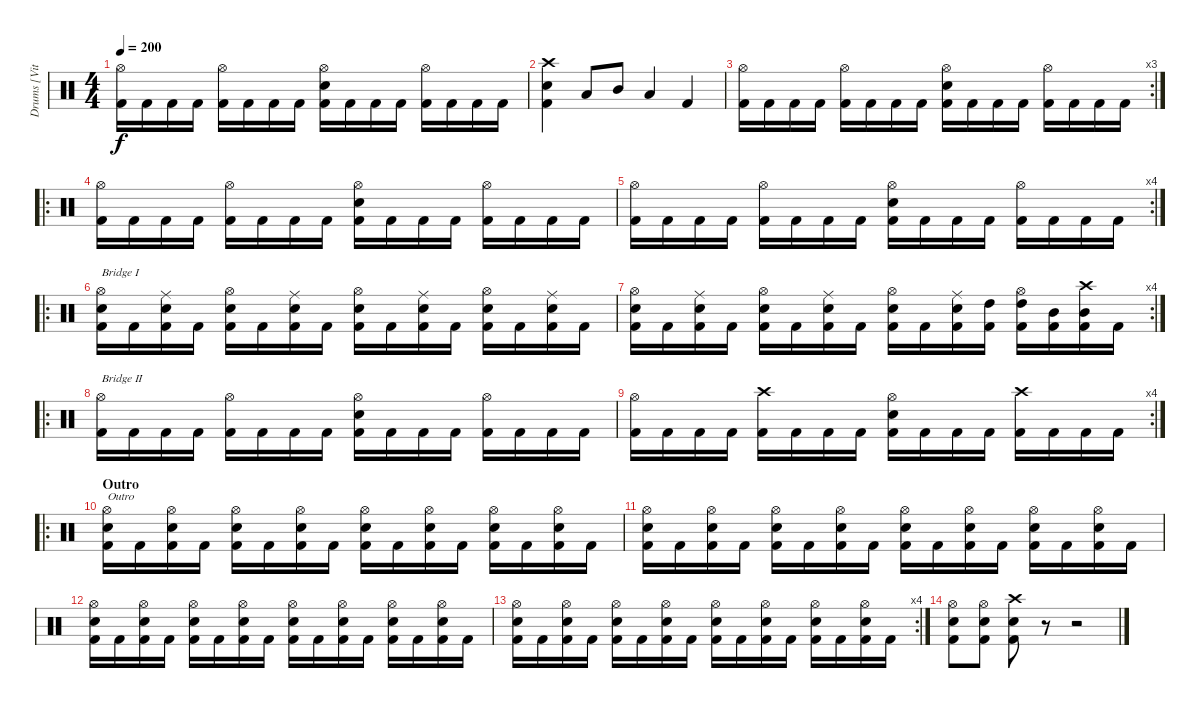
\track ("Drums [Vitek]" "Drums [Vit") {instrument percussion}
\staff {score}
\articulation defaults
\ts (4 4)
\tempo 200
\clef neutral
\ks c
("Hi-Hat (open)" "Kick (hit) 2").16{dy f} "Kick (hit) 2".16 "Kick (hit) 2".16 "Kick (hit) 2".16 ("Hi-Hat (open)" "Kick (hit) 2").16 "Kick (hit) 2".16 "Kick (hit) 2".16 "Kick (hit) 2".16 ("Hi-Hat (open)" "Electric Snare (hit)" "Kick (hit) 2").16 "Kick (hit) 2".16 "Kick (hit) 2".16 "Kick (hit) 2".16 ("Hi-Hat (open)" "Kick (hit) 2").16 "Kick (hit) 2".16 "Kick (hit) 2".16 "Kick (hit) 2".16 |
("Crash high (hit)" "Electric Snare (hit)" "Kick (hit) 2").4 "Low Tom (hit)".8 "Mid Tom (hit)".8 "Low Tom (hit)".4 "Kick (hit) 2".4 |
\rc 3
("Hi-Hat (open)" "Kick (hit) 2").16 "Kick (hit) 2".16 "Kick (hit) 2".16 "Kick (hit) 2".16 ("Hi-Hat (open)" "Kick (hit) 2").16 "Kick (hit) 2".16 "Kick (hit) 2".16 "Kick (hit) 2".16 ("Hi-Hat (open)" "Electric Snare (hit)" "Kick (hit) 2").16 "Kick (hit) 2".16 "Kick (hit) 2".16 "Kick (hit) 2".16 ("Hi-Hat (open)" "Kick (hit) 2").16 "Kick (hit) 2".16 "Kick (hit) 2".16 "Kick (hit) 2".16 |
\ro
("Hi-Hat (open)" "Kick (hit) 2").16 "Kick (hit) 2".16 "Kick (hit) 2".16 "Kick (hit) 2".16 ("Hi-Hat (open)" "Kick (hit) 2").16 "Kick (hit) 2".16 "Kick (hit) 2".16 "Kick (hit) 2".16 ("Hi-Hat (open)" "Electric Snare (hit)" "Kick (hit) 2").16 "Kick (hit) 2".16 "Kick (hit) 2".16 "Kick (hit) 2".16 ("Hi-Hat (open)" "Kick (hit) 2").16 "Kick (hit) 2".16 "Kick (hit) 2".16 "Kick (hit) 2".16 |
\rc 4
("Hi-Hat (open)" "Kick (hit) 2").16 "Kick (hit) 2".16 "Kick (hit) 2".16 "Kick (hit) 2".16 ("Hi-Hat (open)" "Kick (hit) 2").16 "Kick (hit) 2".16 "Kick (hit) 2".16 "Kick (hit) 2".16 ("Hi-Hat (open)" "Electric Snare (hit)" "Kick (hit) 2").16 "Kick (hit) 2".16 "Kick (hit) 2".16 "Kick (hit) 2".16 ("Hi-Hat (open)" "Kick (hit) 2").16 "Kick (hit) 2".16 "Kick (hit) 2".16 "Kick (hit) 2".16 |
\ro
("Hi-Hat (open)" "Electric Snare (hit)" "Kick (hit) 2").16{txt "Bridge I"} "Kick (hit) 2".16 ("Ride (middle)" "Electric Snare (hit)" "Kick (hit) 2").16 "Kick (hit) 2".16 ("Hi-Hat (open)" "Electric Snare (hit)" "Kick (hit) 2").16 "Kick (hit) 2".16 ("Ride (middle)" "Electric Snare (hit)" "Kick (hit) 2").16 "Kick (hit) 2".16 ("Hi-Hat (open)" "Electric Snare (hit)" "Kick (hit) 2").16 "Kick (hit) 2".16 ("Ride (middle)" "Electric Snare (hit)" "Kick (hit) 2").16 "Kick (hit) 2".16 ("Hi-Hat (open)" "Electric Snare (hit)" "Kick (hit) 2").16 "Kick (hit) 2".16 ("Ride (middle)" "Electric Snare (hit)" "Kick (hit) 2").16 "Kick (hit) 2".16 |
\rc 4
("Hi-Hat (open)" "Electric Snare (hit)" "Kick (hit) 2").16 "Kick (hit) 2".16 ("Ride (middle)" "Electric Snare (hit)" "Kick (hit) 2").16 "Kick (hit) 2".16 ("Hi-Hat (open)" "Electric Snare (hit)" "Kick (hit) 2").16 "Kick (hit) 2".16 ("Ride (middle)" "Electric Snare (hit)" "Kick (hit) 2").16 "Kick (hit) 2".16 ("Hi-Hat (open)" "Electric Snare (hit)" "Kick (hit) 2").16 "Kick (hit) 2".16 ("Ride (middle)" "Electric Snare (hit)" "Kick (hit) 2").16 ("High Tom (hit)" "Kick (hit) 2").16 ("Hi-Hat (open)" "High Tom (hit)" "Kick (hit) 2").16 ("Mid Tom (hit)" "Kick (hit) 2").16 ("Crash high (hit)" "Mid Tom (hit)" "Kick (hit) 2").16 "Kick (hit) 2".16 |
\ro
("Hi-Hat (open)" "Kick (hit) 2").16{txt "Bridge II"} "Kick (hit) 2".16 "Kick (hit) 2".16 "Kick (hit) 2".16 ("Hi-Hat (open)" "Kick (hit) 2").16 "Kick (hit) 2".16 "Kick (hit) 2".16 "Kick (hit) 2".16 ("Hi-Hat (open)" "Electric Snare (hit)" "Kick (hit) 2").16 "Kick (hit) 2".16 "Kick (hit) 2".16 "Kick (hit) 2".16 ("Hi-Hat (open)" "Kick (hit) 2").16 "Kick (hit) 2".16 "Kick (hit) 2".16 "Kick (hit) 2".16 |
\rc 4
("Hi-Hat (open)" "Kick (hit) 2").16 "Kick (hit) 2".16 "Kick (hit) 2".16 "Kick (hit) 2".16 ("Crash high (hit)" "Kick (hit) 2").16 "Kick (hit) 2".16 "Kick (hit) 2".16 "Kick (hit) 2".16 ("Hi-Hat (open)" "Electric Snare (hit)" "Kick (hit) 2").16 "Kick (hit) 2".16 "Kick (hit) 2".16 "Kick (hit) 2".16 ("Crash high (hit)" "Kick (hit) 2").16 "Kick (hit) 2".16 "Kick (hit) 2".16 "Kick (hit) 2".16 |
\ro
\section ("" "Outro")
("Hi-Hat (open)" "Electric Snare (hit)" "Kick (hit) 2").16{txt "Outro"} "Kick (hit) 2".16 ("Hi-Hat (open)" "Electric Snare (hit)" "Kick (hit) 2").16 "Kick (hit) 2".16 ("Hi-Hat (open)" "Electric Snare (hit)" "Kick (hit) 2").16 "Kick (hit) 2".16 ("Hi-Hat (open)" "Electric Snare (hit)" "Kick (hit) 2").16 "Kick (hit) 2".16 ("Hi-Hat (open)" "Electric Snare (hit)" "Kick (hit) 2").16 "Kick (hit) 2".16 ("Hi-Hat (open)" "Electric Snare (hit)" "Kick (hit) 2").16 "Kick (hit) 2".16 ("Hi-Hat (open)" "Electric Snare (hit)" "Kick (hit) 2").16 "Kick (hit) 2".16 ("Hi-Hat (open)" "Electric Snare (hit)" "Kick (hit) 2").16 "Kick (hit) 2".16 |
("Hi-Hat (open)" "Electric Snare (hit)" "Kick (hit) 2").16 "Kick (hit) 2".16 ("Hi-Hat (open)" "Electric Snare (hit)" "Kick (hit) 2").16 "Kick (hit) 2".16 ("Hi-Hat (open)" "Electric Snare (hit)" "Kick (hit) 2").16 "Kick (hit) 2".16 ("Hi-Hat (open)" "Electric Snare (hit)" "Kick (hit) 2").16 "Kick (hit) 2".16 ("Hi-Hat (open)" "Electric Snare (hit)" "Kick (hit) 2").16 "Kick (hit) 2".16 ("Hi-Hat (open)" "Electric Snare (hit)" "Kick (hit) 2").16 "Kick (hit) 2".16 ("Hi-Hat (open)" "Electric Snare (hit)" "Kick (hit) 2").16 "Kick (hit) 2".16 ("Hi-Hat (open)" "Electric Snare (hit)" "Kick (hit) 2").16 "Kick (hit) 2".16 |
("Hi-Hat (open)" "Electric Snare (hit)" "Kick (hit) 2").16 "Kick (hit) 2".16 ("Hi-Hat (open)" "Electric Snare (hit)" "Kick (hit) 2").16 "Kick (hit) 2".16 ("Hi-Hat (open)" "Electric Snare (hit)" "Kick (hit) 2").16 "Kick (hit) 2".16 ("Hi-Hat (open)" "Electric Snare (hit)" "Kick (hit) 2").16 "Kick (hit) 2".16 ("Hi-Hat (open)" "Electric Snare (hit)" "Kick (hit) 2").16 "Kick (hit) 2".16 ("Hi-Hat (open)" "Electric Snare (hit)" "Kick (hit) 2").16 "Kick (hit) 2".16 ("Hi-Hat (open)" "Electric Snare (hit)" "Kick (hit) 2").16 "Kick (hit) 2".16 ("Hi-Hat (open)" "Electric Snare (hit)" "Kick (hit) 2").16 "Kick (hit) 2".16 |
\rc 4
("Hi-Hat (open)" "Electric Snare (hit)" "Kick (hit) 2").16 "Kick (hit) 2".16 ("Hi-Hat (open)" "Electric Snare (hit)" "Kick (hit) 2").16 "Kick (hit) 2".16 ("Hi-Hat (open)" "Electric Snare (hit)" "Kick (hit) 2").16 "Kick (hit) 2".16 ("Hi-Hat (open)" "Electric Snare (hit)" "Kick (hit) 2").16 "Kick (hit) 2".16 ("Hi-Hat (open)" "Electric Snare (hit)" "Kick (hit) 2").16 "Kick (hit) 2".16 ("Hi-Hat (open)" "Electric Snare (hit)" "Kick (hit) 2").16 "Kick (hit) 2".16 ("Hi-Hat (open)" "Electric Snare (hit)" "Kick (hit) 2").16 "Kick (hit) 2".16 ("Hi-Hat (open)" "Electric Snare (hit)" "Kick (hit) 2").16 "Kick (hit) 2".16 |
("Hi-Hat (open)" "Electric Snare (hit)" "Kick (hit) 2").8 ("Hi-Hat (open)" "Electric Snare (hit)" "Kick (hit) 2").8 ("Crash high (hit)" "Electric Snare (hit)" "Kick (hit) 2").8 r.8 r.2
